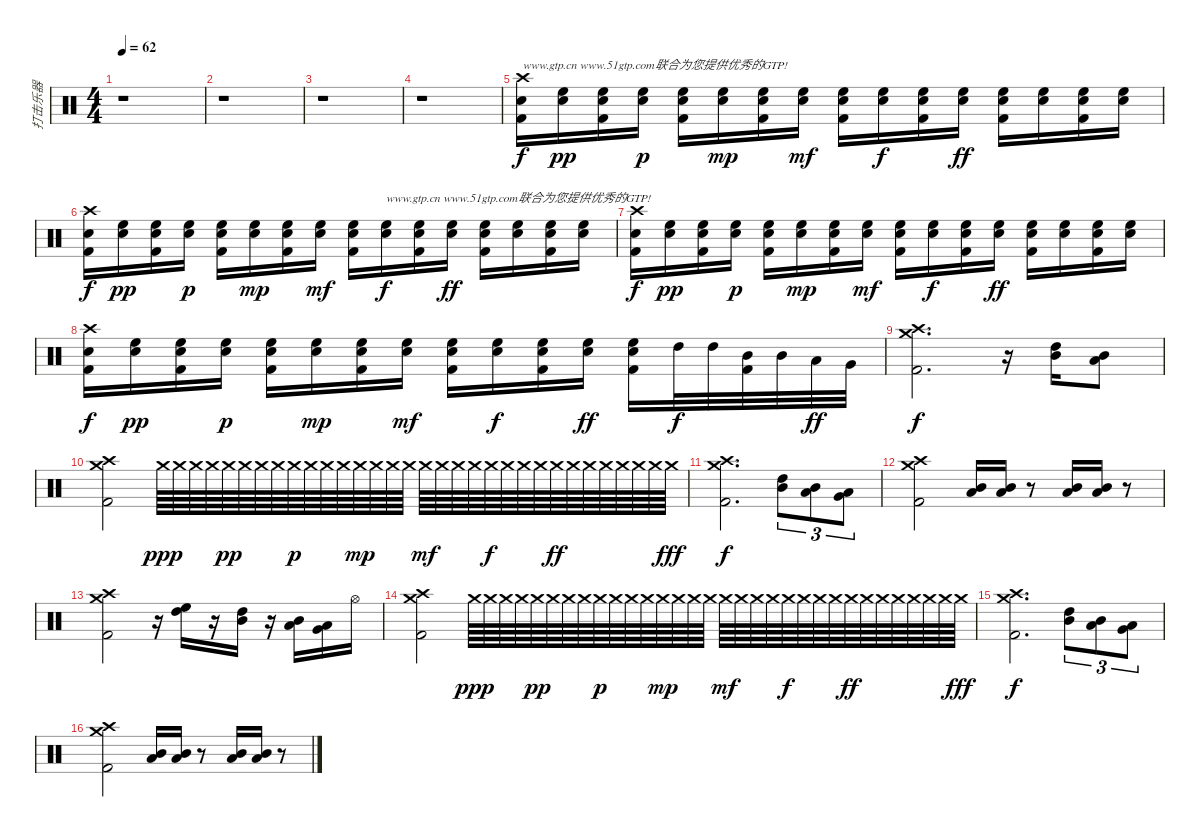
\track ("打击乐器" "打击乐器") {instrument percussion}
\staff {score}
\articulation defaults
\ts (4 4)
\tempo 62
\clef neutral
\ks c
r.1{dy f} |
r.1 |
r.1 |
r.1 |
("Crash high (hit)" "Electric Snare (hit)" "Kick (hit) 2").16{txt "www.gtp.cn www.51gtp.com联合为您提供优秀的GTP!"} ("Electric Snare (hit)" "High Floor Tom (hit)").16{dy pp} ("Electric Snare (hit)" "High Floor Tom (hit)" "Kick (hit) 2").16 ("Electric Snare (hit)" "High Floor Tom (hit)").16{dy p} ("Electric Snare (hit)" "High Floor Tom (hit)" "Kick (hit) 2").16 ("Electric Snare (hit)" "High Floor Tom (hit)").16{dy mp} ("Electric Snare (hit)" "High Floor Tom (hit)" "Kick (hit) 2").16 ("Electric Snare (hit)" "High Floor Tom (hit)").16{dy mf} ("Electric Snare (hit)" "High Floor Tom (hit)" "Kick (hit) 2").16 ("Electric Snare (hit)" "High Floor Tom (hit)").16{dy f} ("Electric Snare (hit)" "High Floor Tom (hit)" "Kick (hit) 2").16 ("Electric Snare (hit)" "High Floor Tom (hit)").16{dy ff} ("Electric Snare (hit)" "High Floor Tom (hit)" "Kick (hit) 2").16 ("Electric Snare (hit)" "High Floor Tom (hit)").16 ("Electric Snare (hit)" "High Floor Tom (hit)" "Kick (hit) 2").16 ("Electric Snare (hit)" "High Floor Tom (hit)").16 |
("Crash high (hit)" "Electric Snare (hit)" "Kick (hit) 2").16{dy f} ("Electric Snare (hit)" "High Floor Tom (hit)").16{dy pp} ("Electric Snare (hit)" "High Floor Tom (hit)" "Kick (hit) 2").16 ("Electric Snare (hit)" "High Floor Tom (hit)").16{dy p} ("Electric Snare (hit)" "High Floor Tom (hit)" "Kick (hit) 2").16 ("Electric Snare (hit)" "High Floor Tom (hit)").16{dy mp} ("Electric Snare (hit)" "High Floor Tom (hit)" "Kick (hit) 2").16 ("Electric Snare (hit)" "High Floor Tom (hit)").16{dy mf} ("Electric Snare (hit)" "High Floor Tom (hit)" "Kick (hit) 2").16 ("Electric Snare (hit)" "High Floor Tom (hit)").16{txt "www.gtp.cn www.51gtp.com联合为您提供优秀的GTP!" dy f} ("Electric Snare (hit)" "High Floor Tom (hit)" "Kick (hit) 2").16 ("Electric Snare (hit)" "High Floor Tom (hit)").16{dy ff} ("Electric Snare (hit)" "High Floor Tom (hit)" "Kick (hit) 2").16 ("Electric Snare (hit)" "High Floor Tom (hit)").16 ("Electric Snare (hit)" "High Floor Tom (hit)" "Kick (hit) 2").16 ("Electric Snare (hit)" "High Floor Tom (hit)").16 |
("Crash high (hit)" "Electric Snare (hit)" "Kick (hit) 2").16{dy f} ("Electric Snare (hit)" "High Floor Tom (hit)").16{dy pp} ("Electric Snare (hit)" "High Floor Tom (hit)" "Kick (hit) 2").16 ("Electric Snare (hit)" "High Floor Tom (hit)").16{dy p} ("Electric Snare (hit)" "High Floor Tom (hit)" "Kick (hit) 2").16 ("Electric Snare (hit)" "High Floor Tom (hit)").16{dy mp} ("Electric Snare (hit)" "High Floor Tom (hit)" "Kick (hit) 2").16 ("Electric Snare (hit)" "High Floor Tom (hit)").16{dy mf} ("Electric Snare (hit)" "High Floor Tom (hit)" "Kick (hit) 2").16 ("Electric Snare (hit)" "High Floor Tom (hit)").16{dy f} ("Electric Snare (hit)" "High Floor Tom (hit)" "Kick (hit) 2").16 ("Electric Snare (hit)" "High Floor Tom (hit)").16{dy ff} ("Electric Snare (hit)" "High Floor Tom (hit)" "Kick (hit) 2").16 ("Electric Snare (hit)" "High Floor Tom (hit)").16 ("Electric Snare (hit)" "High Floor Tom (hit)" "Kick (hit) 2").16 ("Electric Snare (hit)" "High Floor Tom (hit)").16 |
("Crash high (hit)" "Electric Snare (hit)" "Kick (hit) 2").16{dy f} ("Electric Snare (hit)" "High Floor Tom (hit)").16{dy pp} ("Electric Snare (hit)" "High Floor Tom (hit)" "Kick (hit) 2").16 ("Electric Snare (hit)" "High Floor Tom (hit)").16{dy p} ("Electric Snare (hit)" "High Floor Tom (hit)" "Kick (hit) 2").16 ("Electric Snare (hit)" "High Floor Tom (hit)").16{dy mp} ("Electric Snare (hit)" "High Floor Tom (hit)" "Kick (hit) 2").16 ("Electric Snare (hit)" "High Floor Tom (hit)").16{dy mf} ("Electric Snare (hit)" "High Floor Tom (hit)" "Kick (hit) 2").16 ("Electric Snare (hit)" "High Floor Tom (hit)").16{dy f} ("Electric Snare (hit)" "High Floor Tom (hit)" "Kick (hit) 2").16 ("Electric Snare (hit)" "High Floor Tom (hit)").16{dy ff} ("Electric Snare (hit)" "High Floor Tom (hit)" "Kick (hit) 2").16 "High Tom (hit)".32{dy f} "High Tom (hit)".32 ("Mid Tom (hit)" "Kick (hit) 2").32 "Mid Tom (hit)".32 "Low Tom (hit)".32{dy ff} "Very Low Tom (hit)".32 |
("Crash high (hit)" "Crash medium (hit)" "Kick (hit) 2").2{d dy f} r.16 ("Mid Tom (hit)" "High Tom (hit)").16 ("Low Tom (hit)" "Mid Tom (hit)").8 |
("Crash high (hit)" "Crash medium (hit)" "Kick (hit) 2").2 "Crash medium (hit)".64{dy ppp} "Crash medium (hit)".64 "Crash medium (hit)".64 "Crash medium (hit)".64 "Crash medium (hit)".64{dy pp} "Crash medium (hit)".64 "Crash medium (hit)".64 "Crash medium (hit)".64 "Crash medium (hit)".64{dy p} "Crash medium (hit)".64 "Crash medium (hit)".64 "Crash medium (hit)".64 "Crash medium (hit)".64{dy mp} "Crash medium (hit)".64 "Crash medium (hit)".64 "Crash medium (hit)".64 "Crash medium (hit)".64{dy mf} "Crash medium (hit)".64 "Crash medium (hit)".64 "Crash medium (hit)".64 "Crash medium (hit)".64{dy f} "Crash medium (hit)".64 "Crash medium (hit)".64 "Crash medium (hit)".64 "Crash medium (hit)".64{dy ff} "Crash medium (hit)".64 "Crash medium (hit)".64 "Crash medium (hit)".64 "Crash medium (hit)".64 "Crash medium (hit)".64 "Crash medium (hit)".64 "Crash medium (hit)".64{dy fff} |
("Crash high (hit)" "Crash medium (hit)" "Kick (hit) 2").2{d dy f} ("Mid Tom (hit)" "High Tom (hit)").8{tu (3 2)} ("Low Tom (hit)" "Mid Tom (hit)").8{tu (3 2)} ("Very Low Tom (hit)" "Low Tom (hit)").8{tu (3 2)} |
("Crash high (hit)" "Crash medium (hit)" "Kick (hit) 2").2 ("Low Tom (hit)" "Mid Tom (hit)").16 ("Low Tom (hit)" "Mid Tom (hit)").16 r.8 ("Low Tom (hit)" "Mid Tom (hit)").16 ("Low Tom (hit)" "Mid Tom (hit)").16 r.8 |
("Crash high (hit)" "Crash medium (hit)" "Kick (hit) 2").2 r.16 ("High Tom (hit)" "High Floor Tom (hit)").16 r.16 ("Mid Tom (hit)" "High Tom (hit)").16 r.16 ("Low Tom (hit)" "Mid Tom (hit)").16 ("Very Low Tom (hit)" "Low Tom (hit)").16 "Hi-Hat (open)".16 |
("Crash high (hit)" "Crash medium (hit)" "Kick (hit) 2").2 "Crash medium (hit)".64{dy ppp} "Crash medium (hit)".64 "Crash medium (hit)".64 "Crash medium (hit)".64 "Crash medium (hit)".64{dy pp} "Crash medium (hit)".64 "Crash medium (hit)".64 "Crash medium (hit)".64 "Crash medium (hit)".64{dy p} "Crash medium (hit)".64 "Crash medium (hit)".64 "Crash medium (hit)".64 "Crash medium (hit)".64{dy mp} "Crash medium (hit)".64 "Crash medium (hit)".64 "Crash medium (hit)".64 "Crash medium (hit)".64{dy mf} "Crash medium (hit)".64 "Crash medium (hit)".64 "Crash medium (hit)".64 "Crash medium (hit)".64{dy f} "Crash medium (hit)".64 "Crash medium (hit)".64 "Crash medium (hit)".64 "Crash medium (hit)".64{dy ff} "Crash medium (hit)".64 "Crash medium (hit)".64 "Crash medium (hit)".64 "Crash medium (hit)".64 "Crash medium (hit)".64 "Crash medium (hit)".64 "Crash medium (hit)".64{dy fff} |
("Crash high (hit)" "Crash medium (hit)" "Kick (hit) 2").2{d dy f} ("Mid Tom (hit)" "High Tom (hit)").8{tu (3 2)} ("Low Tom (hit)" "Mid Tom (hit)").8{tu (3 2)} ("Very Low Tom (hit)" "Low Tom (hit)").8{tu (3 2)} |
("Crash high (hit)" "Crash medium (hit)" "Kick (hit) 2").2 ("Low Tom (hit)" "Mid Tom (hit)").16 ("Low Tom (hit)" "Mid Tom (hit)").16 r.8 ("Low Tom (hit)" "Mid Tom (hit)").16 ("Low Tom (hit)" "Mid Tom (hit)").16 r.8
